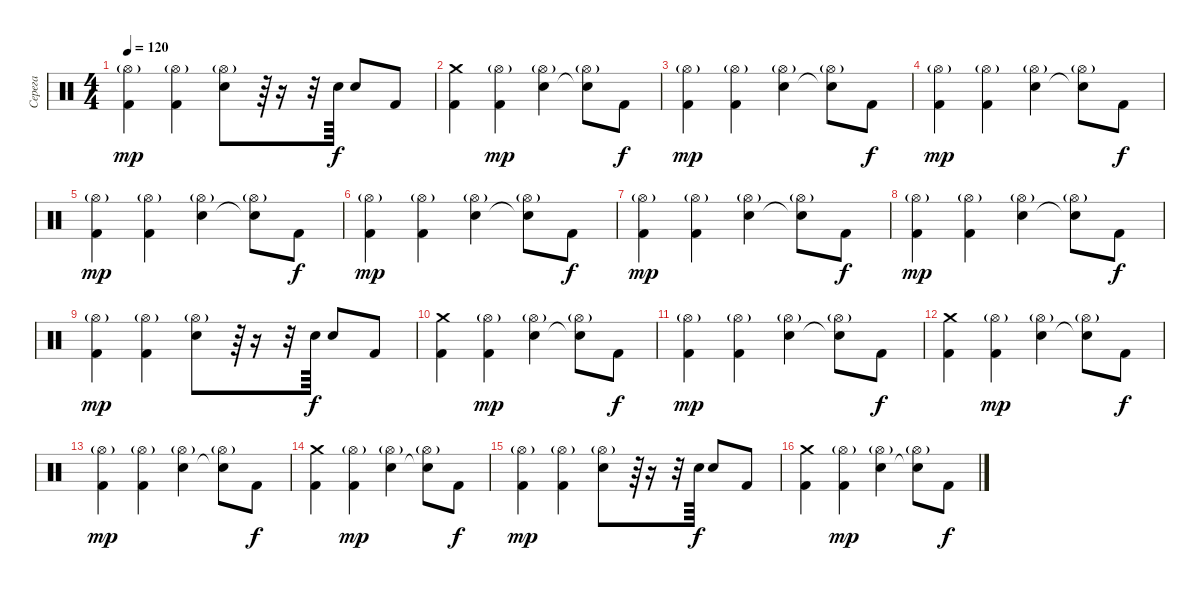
\track ("Серега" "Серега") {instrument percussion}
\staff {score}
\articulation defaults
\ts (4 4)
\tempo 120
\clef neutral
\ks c
("Kick (hit) 2" "Hi-Hat (open)"{g}).4{dy mp} ("Kick (hit) 2" "Hi-Hat (open)"{g}).4 ("Electric Snare (hit)" "Hi-Hat (open)"{g}).8 r.64 r.16 r.32 "Electric Snare (hit)".64{dy f} "Electric Snare (hit)".8 "Kick (hit) 2".8 |
("Kick (hit) 2" "Crash medium (hit)").4 ("Kick (hit) 2" "Hi-Hat (open)"{g}).4{dy mp} ("Electric Snare (hit)" "Hi-Hat (open)"{g}).4 ("Snare (hit)"{t} "Hi-Hat (open)"{g}).8 "Kick (hit) 2".8{dy f} |
("Kick (hit) 2" "Hi-Hat (open)"{g}).4{dy mp} ("Kick (hit) 2" "Hi-Hat (open)"{g}).4 ("Electric Snare (hit)" "Hi-Hat (open)"{g}).4 ("Snare (hit)"{t} "Hi-Hat (open)"{g}).8 "Kick (hit) 2".8{dy f} |
("Kick (hit) 2" "Hi-Hat (open)"{g}).4{dy mp} ("Kick (hit) 2" "Hi-Hat (open)"{g}).4 ("Electric Snare (hit)" "Hi-Hat (open)"{g}).4 ("Snare (hit)"{t} "Hi-Hat (open)"{g}).8 "Kick (hit) 2".8{dy f} |
("Kick (hit) 2" "Hi-Hat (open)"{g}).4{dy mp} ("Kick (hit) 2" "Hi-Hat (open)"{g}).4 ("Electric Snare (hit)" "Hi-Hat (open)"{g}).4 ("Snare (hit)"{t} "Hi-Hat (open)"{g}).8 "Kick (hit) 2".8{dy f} |
("Kick (hit) 2" "Hi-Hat (open)"{g}).4{dy mp} ("Kick (hit) 2" "Hi-Hat (open)"{g}).4 ("Electric Snare (hit)" "Hi-Hat (open)"{g}).4 ("Snare (hit)"{t} "Hi-Hat (open)"{g}).8 "Kick (hit) 2".8{dy f} |
("Kick (hit) 2" "Hi-Hat (open)"{g}).4{dy mp} ("Kick (hit) 2" "Hi-Hat (open)"{g}).4 ("Electric Snare (hit)" "Hi-Hat (open)"{g}).4 ("Snare (hit)"{t} "Hi-Hat (open)"{g}).8 "Kick (hit) 2".8{dy f} |
("Kick (hit) 2" "Hi-Hat (open)"{g}).4{dy mp} ("Kick (hit) 2" "Hi-Hat (open)"{g}).4 ("Electric Snare (hit)" "Hi-Hat (open)"{g}).4 ("Snare (hit)"{t} "Hi-Hat (open)"{g}).8 "Kick (hit) 2".8{dy f} |
("Kick (hit) 2" "Hi-Hat (open)"{g}).4{dy mp} ("Kick (hit) 2" "Hi-Hat (open)"{g}).4 ("Electric Snare (hit)" "Hi-Hat (open)"{g}).8 r.64 r.16 r.32 "Electric Snare (hit)".64{dy f} "Electric Snare (hit)".8 "Kick (hit) 2".8 |
("Kick (hit) 2" "Crash medium (hit)").4 ("Kick (hit) 2" "Hi-Hat (open)"{g}).4{dy mp} ("Electric Snare (hit)" "Hi-Hat (open)"{g}).4 ("Snare (hit)"{t} "Hi-Hat (open)"{g}).8 "Kick (hit) 2".8{dy f} |
("Kick (hit) 2" "Hi-Hat (open)"{g}).4{dy mp} ("Kick (hit) 2" "Hi-Hat (open)"{g}).4 ("Electric Snare (hit)" "Hi-Hat (open)"{g}).4 ("Snare (hit)"{t} "Hi-Hat (open)"{g}).8 "Kick (hit) 2".8{dy f} |
("Kick (hit) 2" "Crash medium (hit)").4 ("Kick (hit) 2" "Hi-Hat (open)"{g}).4{dy mp} ("Electric Snare (hit)" "Hi-Hat (open)"{g}).4 ("Snare (hit)"{t} "Hi-Hat (open)"{g}).8 "Kick (hit) 2".8{dy f} |
("Kick (hit) 2" "Hi-Hat (open)"{g}).4{dy mp} ("Kick (hit) 2" "Hi-Hat (open)"{g}).4 ("Electric Snare (hit)" "Hi-Hat (open)"{g}).4 ("Snare (hit)"{t} "Hi-Hat (open)"{g}).8 "Kick (hit) 2".8{dy f} |
("Kick (hit) 2" "Crash medium (hit)").4 ("Kick (hit) 2" "Hi-Hat (open)"{g}).4{dy mp} ("Electric Snare (hit)" "Hi-Hat (open)"{g}).4 ("Snare (hit)"{t} "Hi-Hat (open)"{g}).8 "Kick (hit) 2".8{dy f} |
("Kick (hit) 2" "Hi-Hat (open)"{g}).4{dy mp} ("Kick (hit) 2" "Hi-Hat (open)"{g}).4 ("Electric Snare (hit)" "Hi-Hat (open)"{g}).8 r.64 r.16 r.32 "Electric Snare (hit)".64{dy f} "Electric Snare (hit)".8 "Kick (hit) 2".8 |
("Kick (hit) 2" "Crash medium (hit)").4 ("Kick (hit) 2" "Hi-Hat (open)"{g}).4{dy mp} ("Electric Snare (hit)" "Hi-Hat (open)"{g}).4 ("Snare (hit)"{t} "Hi-Hat (open)"{g}).8 "Kick (hit) 2".8{dy f}
